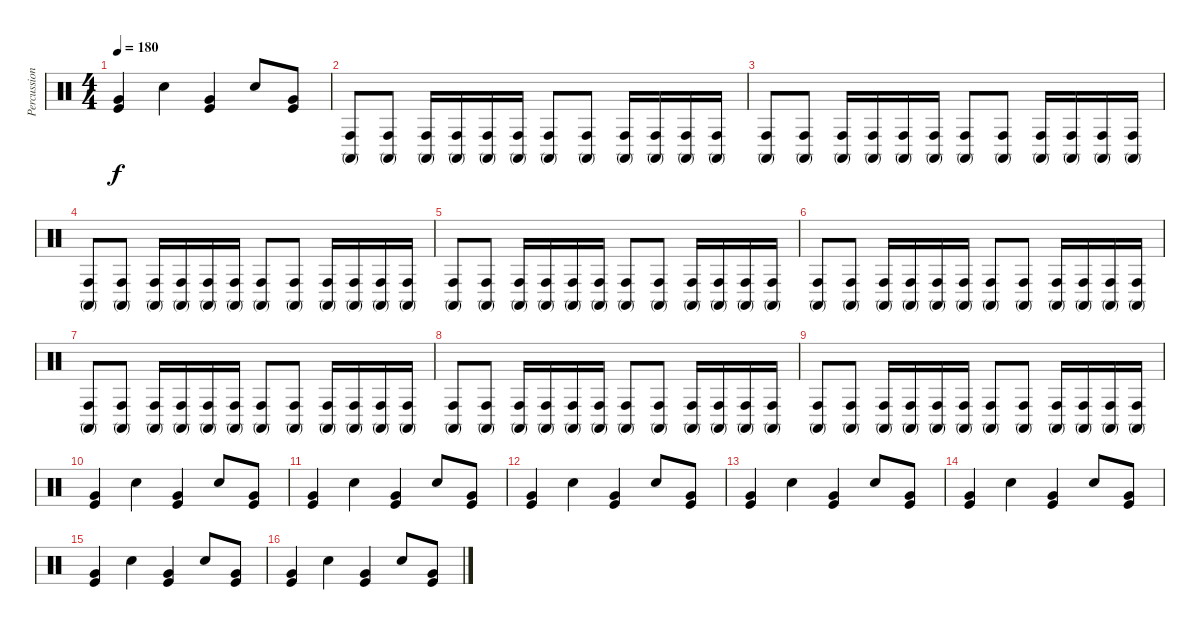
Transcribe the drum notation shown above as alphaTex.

\track ("Percussions" "Percussion") {instrument percussion}
\staff {score}
\articulation defaults
\ts (4 4)
\tempo 180
\clef neutral
\ks c
("Very Low Tom (hit)" "Kick (hit)").4{dy f} "Hand Clap (hit)".4 ("Very Low Tom (hit)" "Kick (hit)").4 "Hand Clap (hit)".8 ("Very Low Tom (hit)" "Kick (hit)").8 |
("Conga high (hit)" "Conga high (mute)").8 ("Conga high (hit)" "Conga high (mute)").8 ("Conga high (hit)" "Conga high (mute)").16 ("Conga high (hit)" "Conga high (mute)").16 ("Conga high (hit)" "Conga high (mute)").16 ("Conga high (hit)" "Conga high (mute)").16 ("Conga high (hit)" "Conga high (mute)").8 ("Conga high (hit)" "Conga high (mute)").8 ("Conga high (hit)" "Conga high (mute)").16 ("Conga high (hit)" "Conga high (mute)").16 ("Conga high (hit)" "Conga high (mute)").16 ("Conga high (hit)" "Conga high (mute)").16 |
("Conga high (hit)" "Conga high (mute)").8 ("Conga high (hit)" "Conga high (mute)").8 ("Conga high (hit)" "Conga high (mute)").16 ("Conga high (hit)" "Conga high (mute)").16 ("Conga high (hit)" "Conga high (mute)").16 ("Conga high (hit)" "Conga high (mute)").16 ("Conga high (hit)" "Conga high (mute)").8 ("Conga high (hit)" "Conga high (mute)").8 ("Conga high (hit)" "Conga high (mute)").16 ("Conga high (hit)" "Conga high (mute)").16 ("Conga high (hit)" "Conga high (mute)").16 ("Conga high (hit)" "Conga high (mute)").16 |
("Conga high (hit)" "Conga high (mute)").8 ("Conga high (hit)" "Conga high (mute)").8 ("Conga high (hit)" "Conga high (mute)").16 ("Conga high (hit)" "Conga high (mute)").16 ("Conga high (hit)" "Conga high (mute)").16 ("Conga high (hit)" "Conga high (mute)").16 ("Conga high (hit)" "Conga high (mute)").8 ("Conga high (hit)" "Conga high (mute)").8 ("Conga high (hit)" "Conga high (mute)").16 ("Conga high (hit)" "Conga high (mute)").16 ("Conga high (hit)" "Conga high (mute)").16 ("Conga high (hit)" "Conga high (mute)").16 |
("Conga high (hit)" "Conga high (mute)").8 ("Conga high (hit)" "Conga high (mute)").8 ("Conga high (hit)" "Conga high (mute)").16 ("Conga high (hit)" "Conga high (mute)").16 ("Conga high (hit)" "Conga high (mute)").16 ("Conga high (hit)" "Conga high (mute)").16 ("Conga high (hit)" "Conga high (mute)").8 ("Conga high (hit)" "Conga high (mute)").8 ("Conga high (hit)" "Conga high (mute)").16 ("Conga high (hit)" "Conga high (mute)").16 ("Conga high (hit)" "Conga high (mute)").16 ("Conga high (hit)" "Conga high (mute)").16 |
("Conga high (hit)" "Conga high (mute)").8 ("Conga high (hit)" "Conga high (mute)").8 ("Conga high (hit)" "Conga high (mute)").16 ("Conga high (hit)" "Conga high (mute)").16 ("Conga high (hit)" "Conga high (mute)").16 ("Conga high (hit)" "Conga high (mute)").16 ("Conga high (hit)" "Conga high (mute)").8 ("Conga high (hit)" "Conga high (mute)").8 ("Conga high (hit)" "Conga high (mute)").16 ("Conga high (hit)" "Conga high (mute)").16 ("Conga high (hit)" "Conga high (mute)").16 ("Conga high (hit)" "Conga high (mute)").16 |
("Conga high (hit)" "Conga high (mute)").8 ("Conga high (hit)" "Conga high (mute)").8 ("Conga high (hit)" "Conga high (mute)").16 ("Conga high (hit)" "Conga high (mute)").16 ("Conga high (hit)" "Conga high (mute)").16 ("Conga high (hit)" "Conga high (mute)").16 ("Conga high (hit)" "Conga high (mute)").8 ("Conga high (hit)" "Conga high (mute)").8 ("Conga high (hit)" "Conga high (mute)").16 ("Conga high (hit)" "Conga high (mute)").16 ("Conga high (hit)" "Conga high (mute)").16 ("Conga high (hit)" "Conga high (mute)").16 |
("Conga high (hit)" "Conga high (mute)").8 ("Conga high (hit)" "Conga high (mute)").8 ("Conga high (hit)" "Conga high (mute)").16 ("Conga high (hit)" "Conga high (mute)").16 ("Conga high (hit)" "Conga high (mute)").16 ("Conga high (hit)" "Conga high (mute)").16 ("Conga high (hit)" "Conga high (mute)").8 ("Conga high (hit)" "Conga high (mute)").8 ("Conga high (hit)" "Conga high (mute)").16 ("Conga high (hit)" "Conga high (mute)").16 ("Conga high (hit)" "Conga high (mute)").16 ("Conga high (hit)" "Conga high (mute)").16 |
("Conga high (hit)" "Conga high (mute)").8 ("Conga high (hit)" "Conga high (mute)").8 ("Conga high (hit)" "Conga high (mute)").16 ("Conga high (hit)" "Conga high (mute)").16 ("Conga high (hit)" "Conga high (mute)").16 ("Conga high (hit)" "Conga high (mute)").16 ("Conga high (hit)" "Conga high (mute)").8 ("Conga high (hit)" "Conga high (mute)").8 ("Conga high (hit)" "Conga high (mute)").16 ("Conga high (hit)" "Conga high (mute)").16 ("Conga high (hit)" "Conga high (mute)").16 ("Conga high (hit)" "Conga high (mute)").16 |
("Very Low Tom (hit)" "Kick (hit)").4 "Hand Clap (hit)".4 ("Very Low Tom (hit)" "Kick (hit)").4 "Hand Clap (hit)".8 ("Very Low Tom (hit)" "Kick (hit)").8 |
("Very Low Tom (hit)" "Kick (hit)").4 "Hand Clap (hit)".4 ("Very Low Tom (hit)" "Kick (hit)").4 "Hand Clap (hit)".8 ("Very Low Tom (hit)" "Kick (hit)").8 |
("Very Low Tom (hit)" "Kick (hit)").4 "Hand Clap (hit)".4 ("Very Low Tom (hit)" "Kick (hit)").4 "Hand Clap (hit)".8 ("Very Low Tom (hit)" "Kick (hit)").8 |
("Very Low Tom (hit)" "Kick (hit)").4 "Hand Clap (hit)".4 ("Very Low Tom (hit)" "Kick (hit)").4 "Hand Clap (hit)".8 ("Very Low Tom (hit)" "Kick (hit)").8 |
("Very Low Tom (hit)" "Kick (hit)").4 "Hand Clap (hit)".4 ("Very Low Tom (hit)" "Kick (hit)").4 "Hand Clap (hit)".8 ("Very Low Tom (hit)" "Kick (hit)").8 |
("Very Low Tom (hit)" "Kick (hit)").4 "Hand Clap (hit)".4 ("Very Low Tom (hit)" "Kick (hit)").4 "Hand Clap (hit)".8 ("Very Low Tom (hit)" "Kick (hit)").8 |
("Very Low Tom (hit)" "Kick (hit)").4 "Hand Clap (hit)".4 ("Very Low Tom (hit)" "Kick (hit)").4 "Hand Clap (hit)".8 ("Very Low Tom (hit)" "Kick (hit)").8
